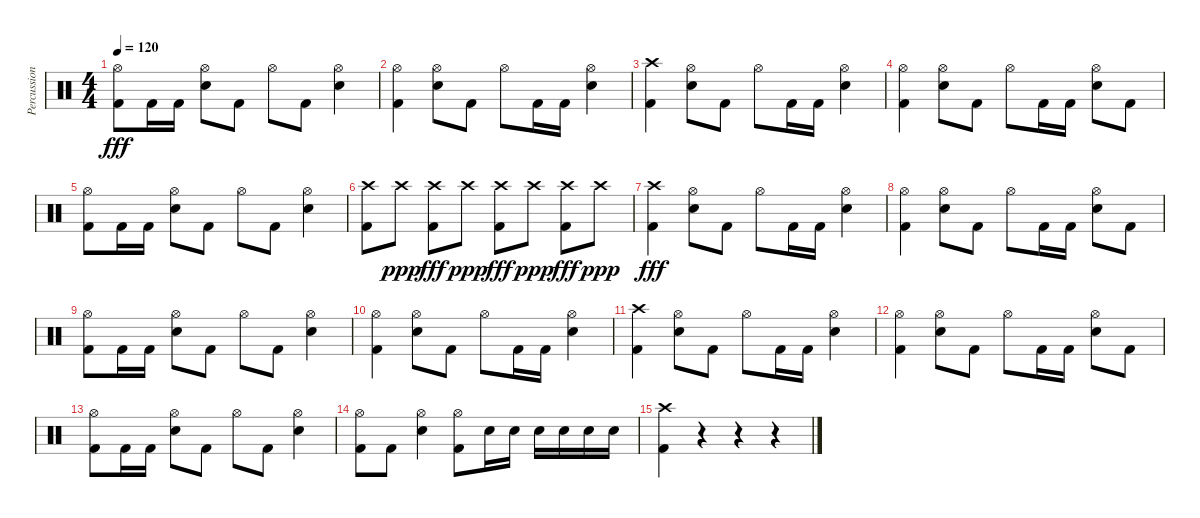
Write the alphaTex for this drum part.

\track ("Percussion" "Percussion") {instrument percussion}
\staff {score}
\articulation defaults
\ts (4 4)
\tempo 120
\clef neutral
\ks c
("Hi-Hat (open)" "Kick (hit) 2").8{dy fff} "Kick (hit) 2".16 "Kick (hit) 2".16 ("Hi-Hat (open)" "Snare (hit) 2").8 "Kick (hit) 2".8 "Hi-Hat (open)".8 "Kick (hit) 2".8 ("Hi-Hat (open)" "Snare (hit) 2").4 |
("Hi-Hat (open)" "Kick (hit) 2").4 ("Hi-Hat (open)" "Snare (hit) 2").8 "Kick (hit) 2".8 "Hi-Hat (open)".8 "Kick (hit) 2".16 "Kick (hit) 2".16 ("Hi-Hat (open)" "Snare (hit) 2").4 |
("Crash high (hit)" "Kick (hit) 2").4 ("Hi-Hat (open)" "Snare (hit) 2").8 "Kick (hit) 2".8 "Hi-Hat (open)".8 "Kick (hit) 2".16 "Kick (hit) 2".16 ("Hi-Hat (open)" "Snare (hit) 2").4 |
("Hi-Hat (open)" "Kick (hit) 2").4 ("Hi-Hat (open)" "Snare (hit) 2").8 "Kick (hit) 2".8 "Hi-Hat (open)".8 "Kick (hit) 2".16 "Kick (hit) 2".16 ("Hi-Hat (open)" "Snare (hit) 2").8 "Kick (hit) 2".8 |
("Hi-Hat (open)" "Kick (hit) 2").8 "Kick (hit) 2".16 "Kick (hit) 2".16 ("Hi-Hat (open)" "Snare (hit) 2").8 "Kick (hit) 2".8 "Hi-Hat (open)".8 "Kick (hit) 2".8 ("Hi-Hat (open)" "Snare (hit) 2").4 |
("Crash high (hit)" "Kick (hit) 2").8 "Crash high (hit)".8{dy ppp} ("Crash high (hit)" "Kick (hit) 2").8{dy fff} "Crash high (hit)".8{dy ppp} ("Crash high (hit)" "Kick (hit) 2").8{dy fff} "Crash high (hit)".8{dy ppp} ("Crash high (hit)" "Kick (hit) 2").8{dy fff} "Crash high (hit)".8{dy ppp} |
("Crash high (hit)" "Kick (hit) 2").4{dy fff} ("Hi-Hat (open)" "Snare (hit) 2").8 "Kick (hit) 2".8 "Hi-Hat (open)".8 "Kick (hit) 2".16 "Kick (hit) 2".16 ("Hi-Hat (open)" "Snare (hit) 2").4 |
("Hi-Hat (open)" "Kick (hit) 2").4 ("Hi-Hat (open)" "Snare (hit) 2").8 "Kick (hit) 2".8 "Hi-Hat (open)".8 "Kick (hit) 2".16 "Kick (hit) 2".16 ("Hi-Hat (open)" "Snare (hit) 2").8 "Kick (hit) 2".8 |
("Hi-Hat (open)" "Kick (hit) 2").8 "Kick (hit) 2".16 "Kick (hit) 2".16 ("Hi-Hat (open)" "Snare (hit) 2").8 "Kick (hit) 2".8 "Hi-Hat (open)".8 "Kick (hit) 2".8 ("Hi-Hat (open)" "Snare (hit) 2").4 |
("Hi-Hat (open)" "Kick (hit) 2").4 ("Hi-Hat (open)" "Snare (hit) 2").8 "Kick (hit) 2".8 "Hi-Hat (open)".8 "Kick (hit) 2".16 "Kick (hit) 2".16 ("Hi-Hat (open)" "Snare (hit) 2").4 |
("Crash high (hit)" "Kick (hit) 2").4 ("Hi-Hat (open)" "Snare (hit) 2").8 "Kick (hit) 2".8 "Hi-Hat (open)".8 "Kick (hit) 2".16 "Kick (hit) 2".16 ("Hi-Hat (open)" "Snare (hit) 2").4 |
("Hi-Hat (open)" "Kick (hit) 2").4 ("Hi-Hat (open)" "Snare (hit) 2").8 "Kick (hit) 2".8 "Hi-Hat (open)".8 "Kick (hit) 2".16 "Kick (hit) 2".16 ("Hi-Hat (open)" "Snare (hit) 2").8 "Kick (hit) 2".8 |
("Hi-Hat (open)" "Kick (hit) 2").8 "Kick (hit) 2".16 "Kick (hit) 2".16 ("Hi-Hat (open)" "Snare (hit) 2").8 "Kick (hit) 2".8 "Hi-Hat (open)".8 "Kick (hit) 2".8 ("Hi-Hat (open)" "Snare (hit) 2").4 |
("Hi-Hat (open)" "Kick (hit) 2").8 "Kick (hit) 2".8 ("Hi-Hat (open)" "Snare (hit) 2").4 ("Hi-Hat (open)" "Kick (hit) 2").8 "Snare (hit) 2".16 "Snare (hit) 2".16 "Snare (hit) 2".16 "Snare (hit) 2".16 "Snare (hit) 2".16 "Snare (hit) 2".16 |
("Crash high (hit)" "Kick (hit) 2").4 r.4 r.4 r.4
